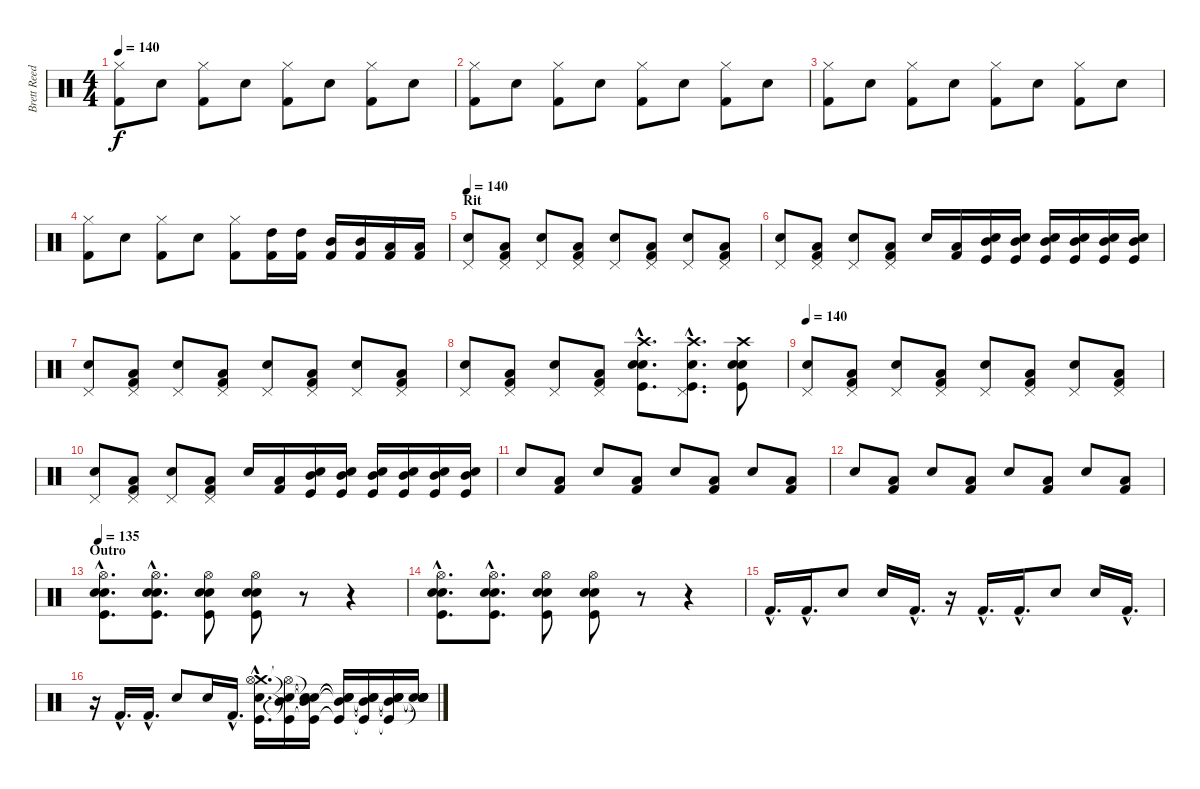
\track ("Brett Reed (Drums)" "Brett Reed") {instrument percussion}
\staff {score}
\articulation defaults
\ts (4 4)
\tempo 140
\clef neutral
\ks c
("Kick (hit) 2" "Hi-Hat (closed)").8{dy f} "Snare (hit) 2".8 ("Kick (hit) 2" "Hi-Hat (closed)").8 "Snare (hit) 2".8 ("Kick (hit) 2" "Hi-Hat (closed)").8 "Snare (hit) 2".8 ("Kick (hit) 2" "Hi-Hat (closed)").8 "Snare (hit) 2".8 |
("Kick (hit) 2" "Hi-Hat (closed)").8 "Snare (hit) 2".8 ("Kick (hit) 2" "Hi-Hat (closed)").8 "Snare (hit) 2".8 ("Kick (hit) 2" "Hi-Hat (closed)").8 "Snare (hit) 2".8 ("Kick (hit) 2" "Hi-Hat (closed)").8 "Snare (hit) 2".8 |
("Kick (hit) 2" "Hi-Hat (closed)").8 "Snare (hit) 2".8 ("Kick (hit) 2" "Hi-Hat (closed)").8 "Snare (hit) 2".8 ("Kick (hit) 2" "Hi-Hat (closed)").8 "Snare (hit) 2".8 ("Kick (hit) 2" "Hi-Hat (closed)").8 "Snare (hit) 2".8 |
("Kick (hit) 2" "Hi-Hat (closed)").8 "Snare (hit) 2".8 ("Kick (hit) 2" "Hi-Hat (closed)").8 "Snare (hit) 2".8 ("Kick (hit) 2" "Hi-Hat (closed)").8 ("Kick (hit) 2" "High Tom (hit)").16 ("Kick (hit) 2" "High Tom (hit)").16 ("Kick (hit) 2" "Mid Tom (hit)").16 ("Kick (hit) 2" "Mid Tom (hit)").16 ("Kick (hit) 2" "Low Tom (hit)").16 ("Kick (hit) 2" "Low Tom (hit)").16 |
\section ("" "Rit")
\tempo 140
("Snare (hit) 2" "Pedal Hi-Hat (hit)").8 ("Kick (hit) 2" "Low Floor Tom (hit)" "Pedal Hi-Hat (hit)").8 ("Snare (hit) 2" "Pedal Hi-Hat (hit)").8 ("Kick (hit) 2" "Low Floor Tom (hit)" "Pedal Hi-Hat (hit)").8 ("Snare (hit) 2" "Pedal Hi-Hat (hit)").8 ("Kick (hit) 2" "Low Floor Tom (hit)" "Pedal Hi-Hat (hit)").8 ("Snare (hit) 2" "Pedal Hi-Hat (hit)").8 ("Kick (hit) 2" "Low Floor Tom (hit)" "Pedal Hi-Hat (hit)").8 |
("Snare (hit) 2" "Pedal Hi-Hat (hit)").8 ("Kick (hit) 2" "Low Floor Tom (hit)" "Pedal Hi-Hat (hit)").8 ("Snare (hit) 2" "Pedal Hi-Hat (hit)").8 ("Kick (hit) 2" "Low Floor Tom (hit)" "Pedal Hi-Hat (hit)").8 "Snare (hit) 2".16 ("Kick (hit) 2" "Low Floor Tom (hit)").16 ("Mid Tom (hit)" "Snare (hit) 2" "Kick (hit)").16 ("Mid Tom (hit)" "Snare (hit) 2" "Kick (hit)").16 ("Mid Tom (hit)" "Snare (hit) 2" "Kick (hit)").16 ("Mid Tom (hit)" "Snare (hit) 2" "Kick (hit)").16 ("Mid Tom (hit)" "Snare (hit) 2" "Kick (hit)").16 ("Mid Tom (hit)" "Snare (hit) 2" "Kick (hit)").16 |
("Snare (hit) 2" "Pedal Hi-Hat (hit)").8 ("Kick (hit) 2" "Low Floor Tom (hit)" "Pedal Hi-Hat (hit)").8 ("Snare (hit) 2" "Pedal Hi-Hat (hit)").8 ("Kick (hit) 2" "Low Floor Tom (hit)" "Pedal Hi-Hat (hit)").8 ("Snare (hit) 2" "Pedal Hi-Hat (hit)").8 ("Kick (hit) 2" "Low Floor Tom (hit)" "Pedal Hi-Hat (hit)").8 ("Snare (hit) 2" "Pedal Hi-Hat (hit)").8 ("Kick (hit) 2" "Low Floor Tom (hit)" "Pedal Hi-Hat (hit)").8 |
("Snare (hit) 2" "Pedal Hi-Hat (hit)").8 ("Kick (hit) 2" "Low Floor Tom (hit)" "Pedal Hi-Hat (hit)").8 ("Snare (hit) 2" "Pedal Hi-Hat (hit)").8 ("Kick (hit) 2" "Low Floor Tom (hit)" "Pedal Hi-Hat (hit)").8 ("Snare (hit) 2"{hac} "Kick (hit)"{hac} "Crash high (hit)"{hac} "Electric Snare (hit)"{hac}).8{d} ("Snare (hit) 2"{hac} "Kick (hit)"{hac} "Crash high (hit)"{hac} "Pedal Hi-Hat (hit)"{hac}).8{d} ("Snare (hit) 2" "Kick (hit)" "Crash high (hit)" "Electric Snare (hit)").8 |
\tempo 140
("Snare (hit) 2" "Pedal Hi-Hat (hit)").8 ("Kick (hit) 2" "Low Floor Tom (hit)" "Pedal Hi-Hat (hit)").8 ("Snare (hit) 2" "Pedal Hi-Hat (hit)").8 ("Kick (hit) 2" "Low Floor Tom (hit)" "Pedal Hi-Hat (hit)").8 ("Snare (hit) 2" "Pedal Hi-Hat (hit)").8 ("Kick (hit) 2" "Low Floor Tom (hit)" "Pedal Hi-Hat (hit)").8 ("Snare (hit) 2" "Pedal Hi-Hat (hit)").8 ("Kick (hit) 2" "Low Floor Tom (hit)" "Pedal Hi-Hat (hit)").8 |
("Snare (hit) 2" "Pedal Hi-Hat (hit)").8 ("Kick (hit) 2" "Low Floor Tom (hit)" "Pedal Hi-Hat (hit)").8 ("Snare (hit) 2" "Pedal Hi-Hat (hit)").8 ("Kick (hit) 2" "Low Floor Tom (hit)" "Pedal Hi-Hat (hit)").8 "Snare (hit) 2".16 ("Kick (hit) 2" "Low Floor Tom (hit)").16 ("Mid Tom (hit)" "Snare (hit) 2" "Kick (hit)").16 ("Mid Tom (hit)" "Snare (hit) 2" "Kick (hit)").16 ("Mid Tom (hit)" "Snare (hit) 2" "Kick (hit)").16 ("Mid Tom (hit)" "Snare (hit) 2" "Kick (hit)").16 ("Mid Tom (hit)" "Snare (hit) 2" "Kick (hit)").16 ("Mid Tom (hit)" "Snare (hit) 2" "Kick (hit)").16 |
"Snare (hit) 2".8 ("Kick (hit) 2" "Low Floor Tom (hit)").8 "Snare (hit) 2".8 ("Kick (hit) 2" "Low Floor Tom (hit)").8 "Snare (hit) 2".8 ("Kick (hit) 2" "Low Floor Tom (hit)").8 "Snare (hit) 2".8 ("Kick (hit) 2" "Low Floor Tom (hit)").8 |
"Snare (hit) 2".8 ("Kick (hit) 2" "Low Floor Tom (hit)").8 "Snare (hit) 2".8 ("Kick (hit) 2" "Low Floor Tom (hit)").8 "Snare (hit) 2".8 ("Kick (hit) 2" "Low Floor Tom (hit)").8 "Snare (hit) 2".8 ("Kick (hit) 2" "Low Floor Tom (hit)").8 |
\section ("" "Outro")
\tempo 135
("Snare (hit) 2"{hac} "Kick (hit)"{hac} "Hi-Hat (open)"{hac} "Electric Snare (hit)"{hac}).8{d} ("Snare (hit) 2"{hac} "Kick (hit)"{hac} "Hi-Hat (open)"{hac} "Electric Snare (hit)"{hac}).8{d} ("Snare (hit) 2" "Kick (hit)" "Hi-Hat (open)" "Electric Snare (hit)").8 ("Snare (hit) 2" "Kick (hit)" "Hi-Hat (open)" "Electric Snare (hit)").8 r.8 r.4 |
("Snare (hit) 2"{hac} "Kick (hit)"{hac} "Hi-Hat (open)"{hac} "Electric Snare (hit)"{hac}).8{d} ("Snare (hit) 2"{hac} "Kick (hit)"{hac} "Hi-Hat (open)"{hac} "Electric Snare (hit)"{hac}).8{d} ("Snare (hit) 2" "Kick (hit)" "Hi-Hat (open)" "Electric Snare (hit)").8 ("Snare (hit) 2" "Kick (hit)" "Hi-Hat (open)" "Electric Snare (hit)").8 r.8 r.4 |
"Kick (hit) 2"{hac}.16{d} "Kick (hit) 2"{hac}.16{d} "Snare (hit) 2".8 "Snare (hit) 2".16 "Kick (hit) 2"{hac}.16{d} r.16 "Kick (hit) 2"{hac}.16{d} "Kick (hit) 2"{hac}.16{d} "Snare (hit) 2".8 "Snare (hit) 2".16 "Kick (hit) 2"{hac}.16{d} |
r.16 "Kick (hit) 2"{hac}.16{d} "Kick (hit) 2"{hac}.16{d} "Snare (hit) 2".8 "Snare (hit) 2".16 "Kick (hit) 2"{hac}.16{d} ("Kick (hit)"{hac} "Crash medium (hit)"{hac} "Snare (hit) 2"{hac} "Hi-Hat (open)"{hac}).16{d} ("Mid Tom (hit)"{t} "Snare (hit) 2"{t} "Kick (hit)"{t} "Hi-Hat (open)"{t}).16 ("Mid Tom (hit)"{t} "Snare (hit) 2"{t} "Kick (hit)"{t} "Snare (hit)"{t}).16 ("Mid Tom (hit)"{t} "Snare (hit) 2"{t} "Kick (hit)"{t} "Snare (hit)"{t}).16 ("Mid Tom (hit)"{t} "Snare (hit) 2"{t} "Kick (hit)"{t} "Snare (hit)"{t}).16 ("Mid Tom (hit)"{t} "Snare (hit) 2"{t} "Kick (hit)"{t} "Snare (hit)"{t}).16 ("Snare (hit)"{t} "Snare (hit)"{t} "Snare (hit)"{t} "Snare (hit)"{t}).16
